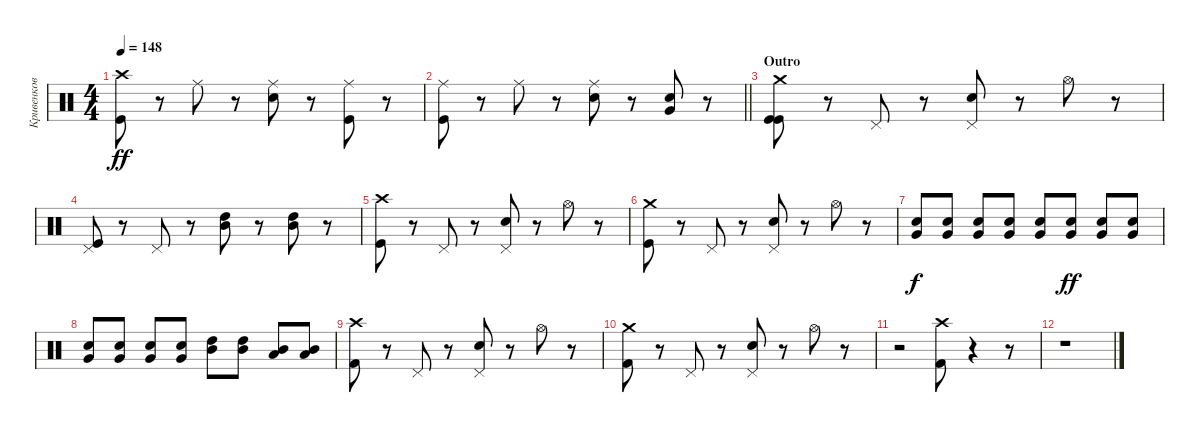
\track ("Кривенков" "Кривенков") {instrument percussion}
\staff {score}
\articulation defaults
\ts (4 4)
\tempo 148
\clef neutral
\ks c
("Crash high (hit)" "Kick (hit)").8{dy ff} r.8 "Ride (middle)".8 r.8 ("Snare (hit) 2" "Ride (middle)").8 r.8 ("Ride (middle)" "Kick (hit)").8 r.8 |
\barLineRight lightlight
("Ride (middle)" "Kick (hit)").8 r.8 "Ride (middle)".8 r.8 ("Ride (middle)" "Snare (hit) 2").8 r.8 ("Very Low Tom (hit)" "Snare (hit) 2").8 r.8 |
\section ("" "Outro")
("Crash medium (hit)" "Kick (hit)" "Kick (hit)").8 r.8 "Pedal Hi-Hat (hit)".8 r.8 ("Pedal Hi-Hat (hit)" "Snare (hit) 2").8 r.8 "Hi-Hat (open)".8 r.8 |
("Pedal Hi-Hat (hit)" "Kick (hit)").8 r.8 "Pedal Hi-Hat (hit)".8 r.8 ("Mid Tom (hit)" "High Tom (hit)").8 r.8 ("High Tom (hit)" "Mid Tom (hit)").8 r.8 |
("Crash high (hit)" "Kick (hit)").8 r.8 "Pedal Hi-Hat (hit)".8 r.8 ("Pedal Hi-Hat (hit)" "Snare (hit) 2").8 r.8 "Hi-Hat (open)".8 r.8 |
("Crash medium (hit)" "Kick (hit)").8 r.8 "Pedal Hi-Hat (hit)".8 r.8 ("Pedal Hi-Hat (hit)" "Snare (hit) 2").8 r.8 "Hi-Hat (open)".8 r.8 |
("Very Low Tom (hit)" "Snare (hit) 2").8{dy f} ("Very Low Tom (hit)" "Snare (hit) 2").8 ("Very Low Tom (hit)" "Snare (hit) 2").8 ("Very Low Tom (hit)" "Snare (hit) 2").8 ("Very Low Tom (hit)" "Snare (hit) 2").8 ("Very Low Tom (hit)" "Snare (hit) 2").8{dy ff} ("Very Low Tom (hit)" "Snare (hit) 2").8 ("Very Low Tom (hit)" "Snare (hit) 2").8 |
("Very Low Tom (hit)" "Snare (hit) 2").8 ("Very Low Tom (hit)" "Snare (hit) 2").8 ("Very Low Tom (hit)" "Snare (hit) 2").8 ("Very Low Tom (hit)" "Snare (hit) 2").8 ("Mid Tom (hit)" "High Tom (hit)").8 ("Mid Tom (hit)" "High Tom (hit)").8 ("Low Tom (hit)" "Mid Tom (hit)").8 ("Low Tom (hit)" "Mid Tom (hit)").8 |
("Crash high (hit)" "Kick (hit) 2").8 r.8 "Pedal Hi-Hat (hit)".8 r.8 ("Pedal Hi-Hat (hit)" "Snare (hit) 2").8 r.8 "Hi-Hat (open)".8 r.8 |
("Crash medium (hit)" "Kick (hit) 2").8 r.8 "Pedal Hi-Hat (hit)".8 r.8 ("Snare (hit) 2" "Pedal Hi-Hat (hit)").8 r.8 "Hi-Hat (open)".8 r.8 |
r.2 ("Crash high (hit)" "Kick (hit) 2").8 r.4 r.8 |
r.1
